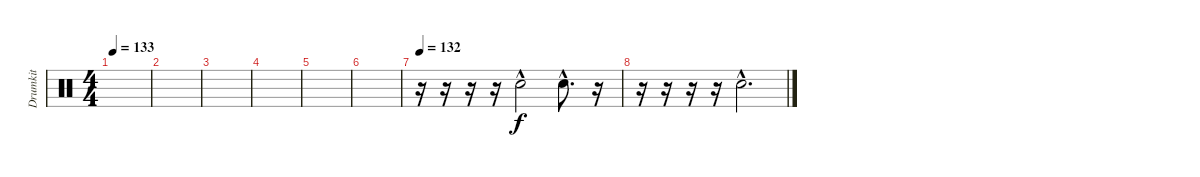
\track ("Drumkit" "Drumkit") {instrument percussion}
\staff {score}
\articulation defaults
\ts (4 4)
\tempo 133
\clef neutral
\ks aminor
|
|
|
|
|
|
\tempo 132
r.16 r.16 r.16 r.16 "Snare (hit) 2"{hac}.2 "Snare (hit) 2"{hac}.8{d} r.16 |
r.16 r.16 r.16 r.16 "Snare (hit) 2"{hac}.2{d}
